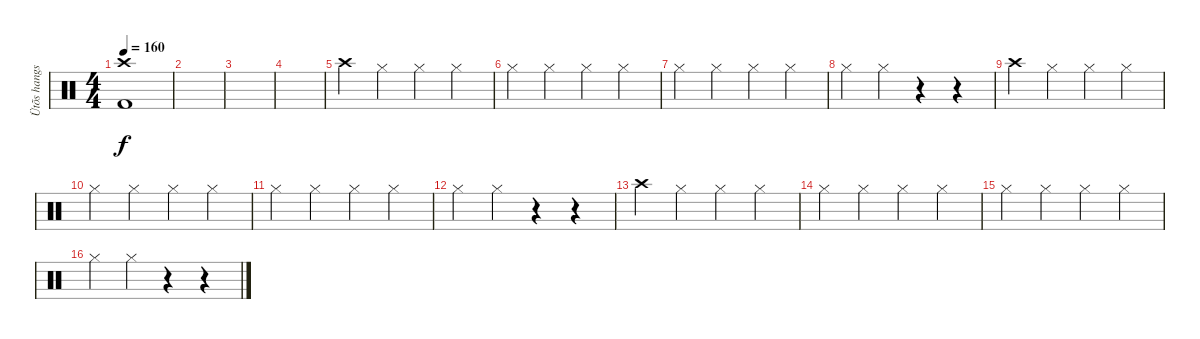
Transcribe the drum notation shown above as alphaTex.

\track ("Ütõs hangszer" "Ütõs hangs") {instrument percussion}
\staff {score}
\articulation defaults
\ts (4 4)
\tempo 160
\clef neutral
\ks c
("Crash high (hit)" "Kick (hit) 2").1{dy f} |
|
|
|
"Crash high (hit)".4 "Hi-Hat (closed)".4 "Hi-Hat (closed)".4 "Hi-Hat (closed)".4 |
"Hi-Hat (closed)".4 "Hi-Hat (closed)".4 "Hi-Hat (closed)".4 "Hi-Hat (closed)".4 |
"Hi-Hat (closed)".4 "Hi-Hat (closed)".4 "Hi-Hat (closed)".4 "Hi-Hat (closed)".4 |
"Hi-Hat (closed)".4 "Hi-Hat (closed)".4 r.4 r.4 |
"Crash high (hit)".4 "Hi-Hat (closed)".4 "Hi-Hat (closed)".4 "Hi-Hat (closed)".4 |
"Hi-Hat (closed)".4 "Hi-Hat (closed)".4 "Hi-Hat (closed)".4 "Hi-Hat (closed)".4 |
"Hi-Hat (closed)".4 "Hi-Hat (closed)".4 "Hi-Hat (closed)".4 "Hi-Hat (closed)".4 |
"Hi-Hat (closed)".4 "Hi-Hat (closed)".4 r.4 r.4 |
"Crash high (hit)".4 "Hi-Hat (closed)".4 "Hi-Hat (closed)".4 "Hi-Hat (closed)".4 |
"Hi-Hat (closed)".4 "Hi-Hat (closed)".4 "Hi-Hat (closed)".4 "Hi-Hat (closed)".4 |
"Hi-Hat (closed)".4 "Hi-Hat (closed)".4 "Hi-Hat (closed)".4 "Hi-Hat (closed)".4 |
"Hi-Hat (closed)".4 "Hi-Hat (closed)".4 r.4 r.4
